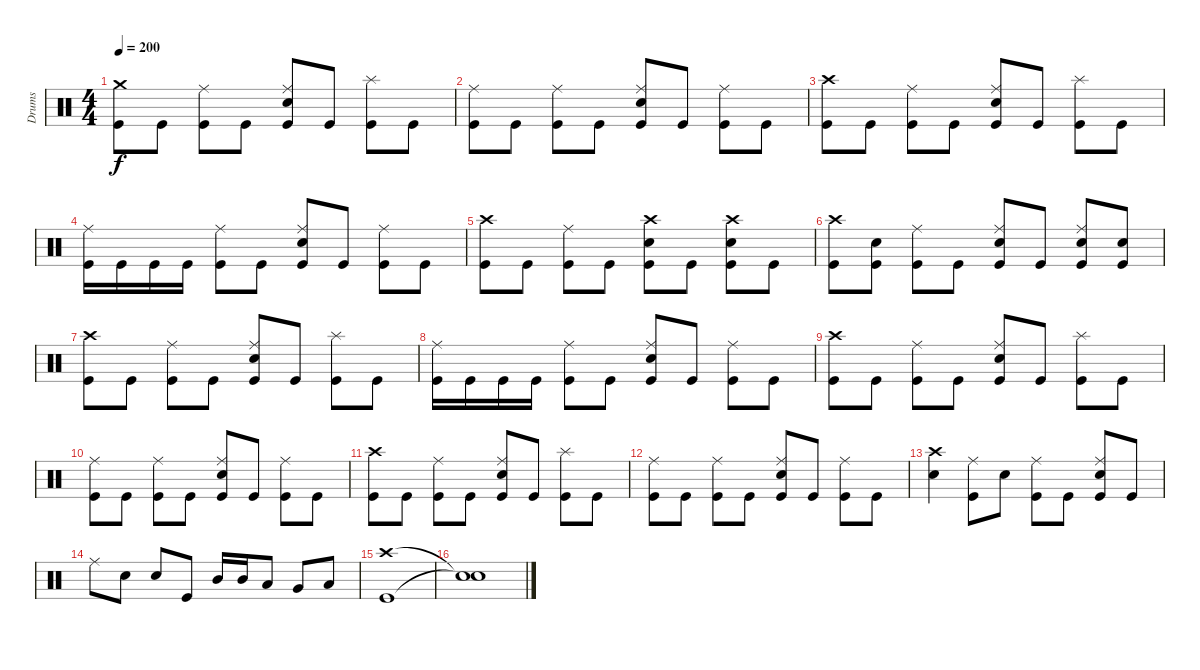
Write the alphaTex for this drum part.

\track ("Drums" "Drums") {instrument percussion}
\staff {score}
\articulation defaults
\ts (4 4)
\tempo 200
\clef neutral
\ks c
("Crash medium (hit)" "Kick (hit)").8{dy f} "Kick (hit)".8 ("Ride (middle)" "Kick (hit)").8 "Kick (hit)".8 ("Ride (middle)" "Snare (hit) 2" "Kick (hit)").8 "Kick (hit)".8 ("Splash (hit)" "Kick (hit)").8 "Kick (hit)".8 |
("Ride (middle)" "Kick (hit)").8 "Kick (hit)".8 ("Ride (middle)" "Kick (hit)").8 "Kick (hit)".8 ("Ride (middle)" "Snare (hit) 2" "Kick (hit)").8 "Kick (hit)".8 ("Ride (middle)" "Kick (hit)").8 "Kick (hit)".8 |
("Crash high (hit)" "Kick (hit)").8 "Kick (hit)".8 ("Ride (middle)" "Kick (hit)").8 "Kick (hit)".8 ("Ride (middle)" "Snare (hit) 2" "Kick (hit)").8 "Kick (hit)".8 ("Splash (hit)" "Kick (hit)").8 "Kick (hit)".8 |
("Ride (middle)" "Kick (hit)").16 "Kick (hit)".16 "Kick (hit)".16 "Kick (hit)".16 ("Ride (middle)" "Kick (hit)").8 "Kick (hit)".8 ("Snare (hit) 2" "Ride (middle)" "Kick (hit)").8 "Kick (hit)".8 ("Ride (middle)" "Kick (hit)").8 "Kick (hit)".8 |
("Crash high (hit)" "Kick (hit)").8 "Kick (hit)".8 ("Ride (middle)" "Kick (hit)").8 "Kick (hit)".8 ("Crash high (hit)" "Snare (hit) 2" "Kick (hit)").8 "Kick (hit)".8 ("Crash high (hit)" "Snare (hit) 2" "Kick (hit)").8 "Kick (hit)".8 |
("Crash high (hit)" "Kick (hit)").8 ("Snare (hit) 2" "Kick (hit)").8 ("Ride (middle)" "Kick (hit)").8 "Kick (hit)".8 ("Ride (middle)" "Snare (hit) 2" "Kick (hit)").8 "Kick (hit)".8 ("Ride (middle)" "Snare (hit) 2" "Kick (hit)").8 ("Snare (hit) 2" "Kick (hit)").8 |
("Crash high (hit)" "Kick (hit)").8 "Kick (hit)".8 ("Ride (middle)" "Kick (hit)").8 "Kick (hit)".8 ("Ride (middle)" "Snare (hit) 2" "Kick (hit)").8 "Kick (hit)".8 ("Splash (hit)" "Kick (hit)").8 "Kick (hit)".8 |
("Ride (middle)" "Kick (hit)").16 "Kick (hit)".16 "Kick (hit)".16 "Kick (hit)".16 ("Ride (middle)" "Kick (hit)").8 "Kick (hit)".8 ("Snare (hit) 2" "Ride (middle)" "Kick (hit)").8 "Kick (hit)".8 ("Ride (middle)" "Kick (hit)").8 "Kick (hit)".8 |
("Crash high (hit)" "Kick (hit)").8 "Kick (hit)".8 ("Ride (middle)" "Kick (hit)").8 "Kick (hit)".8 ("Ride (middle)" "Snare (hit) 2" "Kick (hit)").8 "Kick (hit)".8 ("Splash (hit)" "Kick (hit)").8 "Kick (hit)".8 |
("Ride (middle)" "Kick (hit)").8 "Kick (hit)".8 ("Ride (middle)" "Kick (hit)").8 "Kick (hit)".8 ("Ride (middle)" "Snare (hit) 2" "Kick (hit)").8 "Kick (hit)".8 ("Ride (middle)" "Kick (hit)").8 "Kick (hit)".8 |
("Crash high (hit)" "Kick (hit)").8 "Kick (hit)".8 ("Ride (middle)" "Kick (hit)").8 "Kick (hit)".8 ("Ride (middle)" "Snare (hit) 2" "Kick (hit)").8 "Kick (hit)".8 ("Splash (hit)" "Kick (hit)").8 "Kick (hit)".8 |
("Ride (middle)" "Kick (hit)").8 "Kick (hit)".8 ("Ride (middle)" "Kick (hit)").8 "Kick (hit)".8 ("Ride (middle)" "Snare (hit) 2" "Kick (hit)").8 "Kick (hit)".8 ("Ride (middle)" "Kick (hit)").8 "Kick (hit)".8 |
("Crash high (hit)" "Snare (hit) 2").4 ("Ride (middle)" "Kick (hit)").8 "Snare (hit) 2".8 ("Ride (middle)" "Kick (hit)").8 "Kick (hit)".8 ("Ride (middle)" "Snare (hit) 2" "Kick (hit)").8 "Kick (hit)".8 |
"Ride (middle)".8 "Snare (hit) 2".8 "Snare (hit) 2".8 "Kick (hit)".8 "Mid Tom (hit)".16 "Mid Tom (hit)".16 "Low Tom (hit)".8 "Very Low Tom (hit)".8 "Low Floor Tom (hit)".8 |
("Crash high (hit)" "Kick (hit)").1 |
("Snare (hit)"{t} "Snare (hit)"{t}).1
